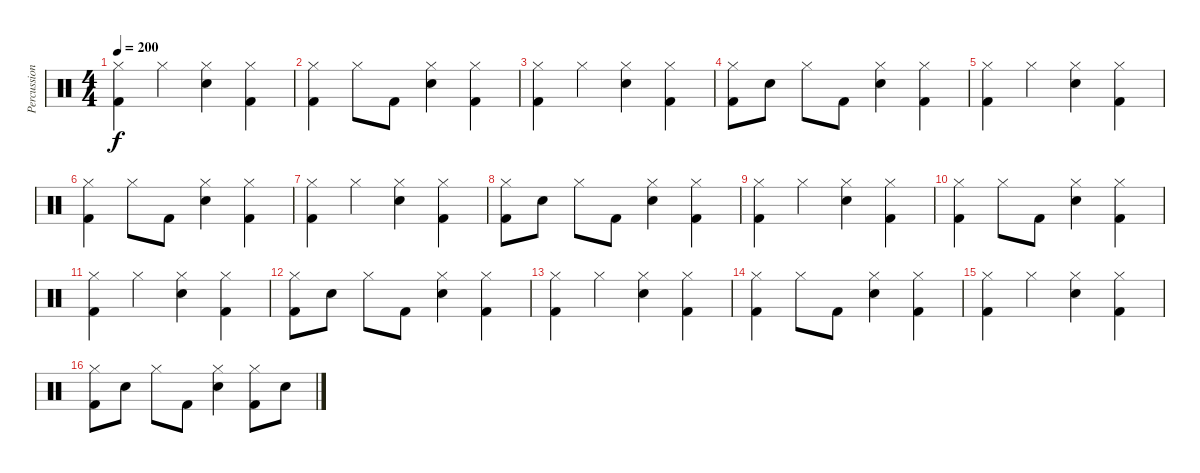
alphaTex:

\track ("Percussion" "Percussion") {instrument percussion}
\staff {score}
\articulation defaults
\ts (4 4)
\tempo 200
\clef neutral
\ks c
("Kick (hit) 2" "Hi-Hat (closed)").4{dy f} "Hi-Hat (closed)".4 ("Snare (hit) 2" "Hi-Hat (closed)").4 ("Kick (hit) 2" "Hi-Hat (closed)").4 |
("Kick (hit) 2" "Hi-Hat (closed)").4 "Hi-Hat (closed)".8 "Kick (hit) 2".8 ("Snare (hit) 2" "Hi-Hat (closed)").4 ("Kick (hit) 2" "Hi-Hat (closed)").4 |
("Kick (hit) 2" "Hi-Hat (closed)").4 "Hi-Hat (closed)".4 ("Snare (hit) 2" "Hi-Hat (closed)").4 ("Kick (hit) 2" "Hi-Hat (closed)").4 |
("Kick (hit) 2" "Hi-Hat (closed)").8 "Snare (hit) 2".8 "Hi-Hat (closed)".8 "Kick (hit) 2".8 ("Snare (hit) 2" "Hi-Hat (closed)").4 ("Kick (hit) 2" "Hi-Hat (closed)").4 |
("Kick (hit) 2" "Hi-Hat (closed)").4 "Hi-Hat (closed)".4 ("Snare (hit) 2" "Hi-Hat (closed)").4 ("Kick (hit) 2" "Hi-Hat (closed)").4 |
("Kick (hit) 2" "Hi-Hat (closed)").4 "Hi-Hat (closed)".8 "Kick (hit) 2".8 ("Snare (hit) 2" "Hi-Hat (closed)").4 ("Kick (hit) 2" "Hi-Hat (closed)").4 |
("Kick (hit) 2" "Hi-Hat (closed)").4 "Hi-Hat (closed)".4 ("Snare (hit) 2" "Hi-Hat (closed)").4 ("Kick (hit) 2" "Hi-Hat (closed)").4 |
("Kick (hit) 2" "Hi-Hat (closed)").8 "Snare (hit) 2".8 "Hi-Hat (closed)".8 "Kick (hit) 2".8 ("Snare (hit) 2" "Hi-Hat (closed)").4 ("Kick (hit) 2" "Hi-Hat (closed)").4 |
("Kick (hit) 2" "Hi-Hat (closed)").4 "Hi-Hat (closed)".4 ("Snare (hit) 2" "Hi-Hat (closed)").4 ("Kick (hit) 2" "Hi-Hat (closed)").4 |
("Kick (hit) 2" "Hi-Hat (closed)").4 "Hi-Hat (closed)".8 "Kick (hit) 2".8 ("Snare (hit) 2" "Hi-Hat (closed)").4 ("Kick (hit) 2" "Hi-Hat (closed)").4 |
("Kick (hit) 2" "Hi-Hat (closed)").4 "Hi-Hat (closed)".4 ("Snare (hit) 2" "Hi-Hat (closed)").4 ("Kick (hit) 2" "Hi-Hat (closed)").4 |
("Kick (hit) 2" "Hi-Hat (closed)").8 "Snare (hit) 2".8 "Hi-Hat (closed)".8 "Kick (hit) 2".8 ("Snare (hit) 2" "Hi-Hat (closed)").4 ("Kick (hit) 2" "Hi-Hat (closed)").4 |
("Kick (hit) 2" "Hi-Hat (closed)").4 "Hi-Hat (closed)".4 ("Snare (hit) 2" "Hi-Hat (closed)").4 ("Kick (hit) 2" "Hi-Hat (closed)").4 |
("Kick (hit) 2" "Hi-Hat (closed)").4 "Hi-Hat (closed)".8 "Kick (hit) 2".8 ("Snare (hit) 2" "Hi-Hat (closed)").4 ("Kick (hit) 2" "Hi-Hat (closed)").4 |
("Kick (hit) 2" "Hi-Hat (closed)").4 "Hi-Hat (closed)".4 ("Snare (hit) 2" "Hi-Hat (closed)").4 ("Kick (hit) 2" "Hi-Hat (closed)").4 |
("Kick (hit) 2" "Hi-Hat (closed)").8 "Snare (hit) 2".8 "Hi-Hat (closed)".8 "Kick (hit) 2".8 ("Snare (hit) 2" "Hi-Hat (closed)").4 ("Kick (hit) 2" "Hi-Hat (closed)").8 "Snare (hit) 2".8
